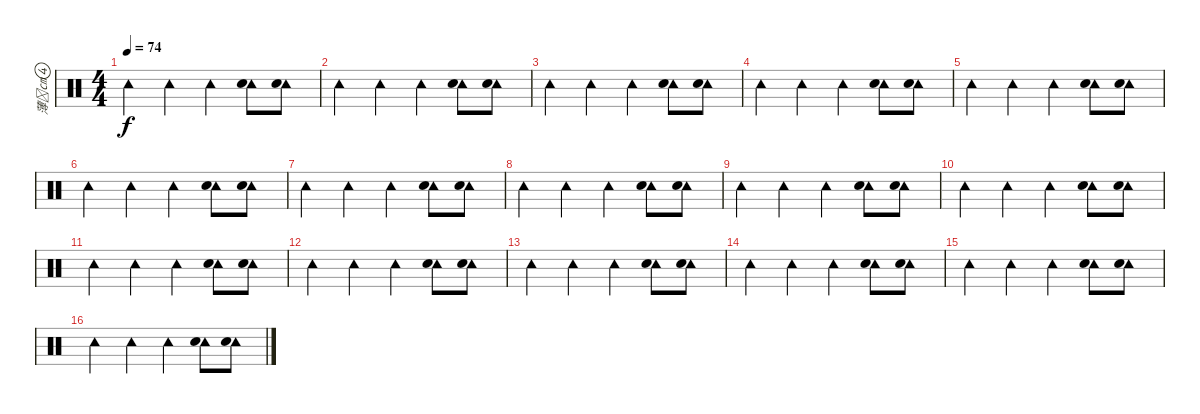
\track ("薄㎝" "薄㎝") {instrument percussion}
\staff {score}
\articulation defaults
\ts (4 4)
\tempo 74
\clef neutral
\ks c "Tambourine (hit)".4{dy f} "Tambourine (hit)".4 "Tambourine (hit)".4
("Tambourine (hit)" "Snare (hit) 2").8 ("Tambourine (hit)" "Snare (hit) 2").8 |
"Tambourine (hit)".4 "Tambourine (hit)".4 "Tambourine (hit)".4 ("Tambourine (hit)" "Snare (hit) 2").8 ("Tambourine (hit)" "Snare (hit) 2").8 |
"Tambourine (hit)".4 "Tambourine (hit)".4 "Tambourine (hit)".4 ("Tambourine (hit)" "Snare (hit) 2").8 ("Tambourine (hit)" "Snare (hit) 2").8 |
"Tambourine (hit)".4 "Tambourine (hit)".4 "Tambourine (hit)".4 ("Tambourine (hit)" "Snare (hit) 2").8 ("Tambourine (hit)" "Snare (hit) 2").8 |
"Tambourine (hit)".4 "Tambourine (hit)".4 "Tambourine (hit)".4 ("Tambourine (hit)" "Snare (hit) 2").8 ("Tambourine (hit)" "Snare (hit) 2").8 |
"Tambourine (hit)".4 "Tambourine (hit)".4 "Tambourine (hit)".4 ("Tambourine (hit)" "Snare (hit) 2").8 ("Tambourine (hit)" "Snare (hit) 2").8 |
"Tambourine (hit)".4 "Tambourine (hit)".4 "Tambourine (hit)".4 ("Tambourine (hit)" "Snare (hit) 2").8 ("Tambourine (hit)" "Snare (hit) 2").8 |
"Tambourine (hit)".4 "Tambourine (hit)".4 "Tambourine (hit)".4 ("Tambourine (hit)" "Snare (hit) 2").8 ("Tambourine (hit)" "Snare (hit) 2").8 |
"Tambourine (hit)".4 "Tambourine (hit)".4 "Tambourine (hit)".4 ("Tambourine (hit)" "Snare (hit) 2").8 ("Tambourine (hit)" "Snare (hit) 2").8 |
"Tambourine (hit)".4 "Tambourine (hit)".4 "Tambourine (hit)".4 ("Tambourine (hit)" "Snare (hit) 2").8 ("Tambourine (hit)" "Snare (hit) 2").8 |
"Tambourine (hit)".4 "Tambourine (hit)".4 "Tambourine (hit)".4 ("Tambourine (hit)" "Snare (hit) 2").8 ("Tambourine (hit)" "Snare (hit) 2").8 |
"Tambourine (hit)".4 "Tambourine (hit)".4 "Tambourine (hit)".4 ("Tambourine (hit)" "Snare (hit) 2").8 ("Tambourine (hit)" "Snare (hit) 2").8 |
"Tambourine (hit)".4 "Tambourine (hit)".4 "Tambourine (hit)".4 ("Tambourine (hit)" "Snare (hit) 2").8 ("Tambourine (hit)" "Snare (hit) 2").8 |
"Tambourine (hit)".4 "Tambourine (hit)".4 "Tambourine (hit)".4 ("Tambourine (hit)" "Snare (hit) 2").8 ("Tambourine (hit)" "Snare (hit) 2").8 |
"Tambourine (hit)".4 "Tambourine (hit)".4 "Tambourine (hit)".4 ("Tambourine (hit)" "Snare (hit) 2").8 ("Tambourine (hit)" "Snare (hit) 2").8 |
"Tambourine (hit)".4 "Tambourine (hit)".4 "Tambourine (hit)".4 ("Tambourine (hit)" "Snare (hit) 2").8 ("Tambourine (hit)" "Snare (hit) 2").8
